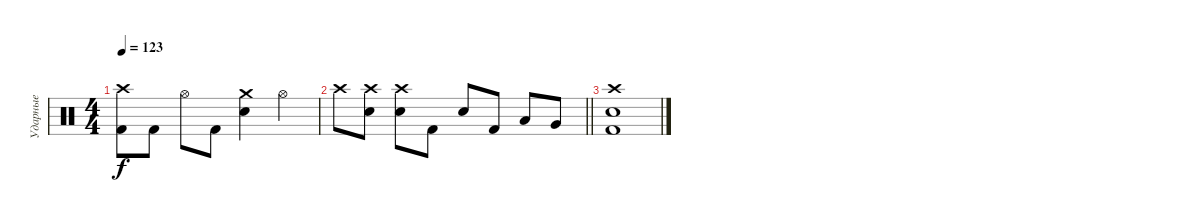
\track ("Ударные" "Ударные") {instrument percussion}
\staff {score}
\articulation defaults
\ts (4 4)
\tempo 123
\clef neutral
\ks c
("Kick (hit) 2" "Crash high (hit)").8{dy f} "Kick (hit) 2".8 "Hi-Hat (open)".8 "Kick (hit) 2".8 ("Electric Snare (hit)" "Crash medium (hit)").4 "Hi-Hat (open)".4 |
\barLineRight lightlight "Crash high (hit)".8
("Electric Snare (hit)" "Crash high (hit)").8 ("Electric Snare (hit)" "Crash high (hit)").8 "Kick (hit) 2".8 "Electric Snare (hit)".8 "Kick (hit) 2".8 "Low Tom (hit)".8 "Very Low Tom (hit)".8 |
("Kick (hit) 2" "Electric Snare (hit)" "Crash high (hit)").1
